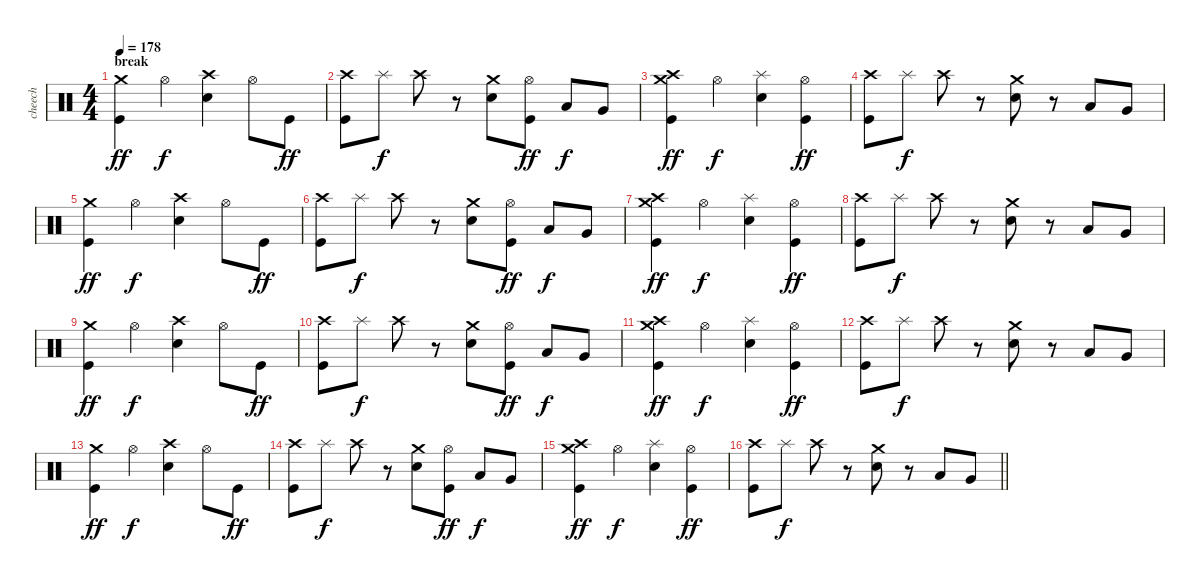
\track ("cheech" "cheech") {solo instrument percussion}
\staff {score}
\articulation defaults
\ts (4 4)
\section ("" "break")
\tempo 178
\clef neutral
\ks c
("Crash medium (hit)" "Kick (hit)").4{dy ff} "Hi-Hat (open)".4{dy f} ("Electric Snare (hit)" "Crash high (hit)").4 "Hi-Hat (open)".8 "Kick (hit)".8{dy ff} |
("Crash high (hit)" "Kick (hit)").8 "Splash (hit)".8{dy f} "Crash high (hit)".8 r.8 ("Crash medium (hit)" "Electric Snare (hit)").8 ("Hi-Hat (open)" "Kick (hit)").8{dy ff} "Low Tom (hit)".8{dy f} "Very Low Tom (hit)".8 |
("Crash medium (hit)" "Crash high (hit)" "Kick (hit)").4{dy ff} "Hi-Hat (open)".4{dy f} ("Splash (hit)" "Electric Snare (hit)").4 ("Hi-Hat (open)" "Kick (hit)").4{dy ff} |
("Crash high (hit)" "Kick (hit)").8 "Splash (hit)".8{dy f} "Crash high (hit)".8 r.8 ("Crash medium (hit)" "Electric Snare (hit)").8 r.8 "Low Tom (hit)".8 "Very Low Tom (hit)".8 |
("Crash medium (hit)" "Kick (hit)").4{dy ff} "Hi-Hat (open)".4{dy f} ("Electric Snare (hit)" "Crash high (hit)").4 "Hi-Hat (open)".8 "Kick (hit)".8{dy ff} |
("Crash high (hit)" "Kick (hit)").8 "Splash (hit)".8{dy f} "Crash high (hit)".8 r.8 ("Crash medium (hit)" "Electric Snare (hit)").8 ("Hi-Hat (open)" "Kick (hit)").8{dy ff} "Low Tom (hit)".8{dy f} "Very Low Tom (hit)".8 |
("Crash medium (hit)" "Crash high (hit)" "Kick (hit)").4{dy ff} "Hi-Hat (open)".4{dy f} ("Splash (hit)" "Electric Snare (hit)").4 ("Hi-Hat (open)" "Kick (hit)").4{dy ff} |
("Crash high (hit)" "Kick (hit)").8 "Splash (hit)".8{dy f} "Crash high (hit)".8 r.8 ("Crash medium (hit)" "Electric Snare (hit)").8 r.8 "Low Tom (hit)".8 "Very Low Tom (hit)".8 |
("Crash medium (hit)" "Kick (hit)").4{dy ff} "Hi-Hat (open)".4{dy f} ("Electric Snare (hit)" "Crash high (hit)").4 "Hi-Hat (open)".8 "Kick (hit)".8{dy ff} |
("Crash high (hit)" "Kick (hit)").8 "Splash (hit)".8{dy f} "Crash high (hit)".8 r.8 ("Crash medium (hit)" "Electric Snare (hit)").8 ("Hi-Hat (open)" "Kick (hit)").8{dy ff} "Low Tom (hit)".8{dy f} "Very Low Tom (hit)".8 |
("Crash medium (hit)" "Crash high (hit)" "Kick (hit)").4{dy ff} "Hi-Hat (open)".4{dy f} ("Splash (hit)" "Electric Snare (hit)").4 ("Hi-Hat (open)" "Kick (hit)").4{dy ff} |
("Crash high (hit)" "Kick (hit)").8 "Splash (hit)".8{dy f} "Crash high (hit)".8 r.8 ("Crash medium (hit)" "Electric Snare (hit)").8 r.8 "Low Tom (hit)".8 "Very Low Tom (hit)".8 |
("Crash medium (hit)" "Kick (hit)").4{dy ff} "Hi-Hat (open)".4{dy f} ("Electric Snare (hit)" "Crash high (hit)").4 "Hi-Hat (open)".8 "Kick (hit)".8{dy ff} |
("Crash high (hit)" "Kick (hit)").8 "Splash (hit)".8{dy f} "Crash high (hit)".8 r.8 ("Crash medium (hit)" "Electric Snare (hit)").8 ("Hi-Hat (open)" "Kick (hit)").8{dy ff} "Low Tom (hit)".8{dy f} "Very Low Tom (hit)".8 |
("Crash medium (hit)" "Crash high (hit)" "Kick (hit)").4{dy ff} "Hi-Hat (open)".4{dy f} ("Splash (hit)" "Electric Snare (hit)").4 ("Hi-Hat (open)" "Kick (hit)").4{dy ff} |
\barLineRight lightlight
("Crash high (hit)" "Kick (hit)").8 "Splash (hit)".8{dy f} "Crash high (hit)".8 r.8 ("Crash medium (hit)" "Electric Snare (hit)").8 r.8 "Low Tom (hit)".8 "Very Low Tom (hit)".8
